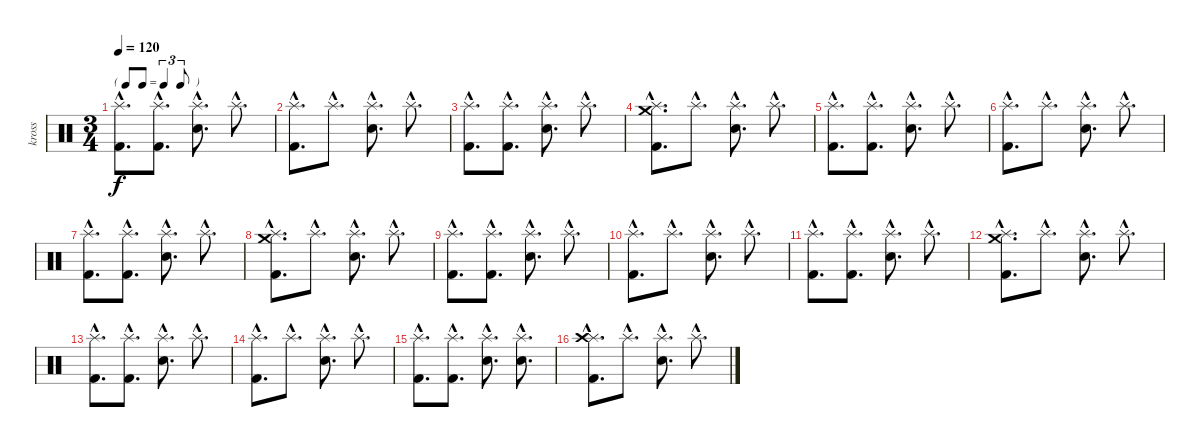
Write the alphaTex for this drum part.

\track ("kross" "kross") {instrument percussion}
\staff {score}
\articulation defaults
\ts (3 4)
\tf triplet8th
\tempo 120
\clef neutral
\ks c
("Splash (hit)"{hac} "Kick (hit) 2"{hac}).8{d dy f} ("Splash (hit)"{hac} "Kick (hit) 2"{hac}).8{d} ("Electric Snare (hit)"{hac} "Splash (hit)"{hac}).8{d} "Splash (hit)"{hac}.8{d} |
("Splash (hit)"{hac} "Kick (hit) 2"{hac}).8{d} "Splash (hit)"{hac}.8{d} ("Electric Snare (hit)"{hac} "Splash (hit)"{hac}).8{d} "Splash (hit)"{hac}.8{d} |
("Splash (hit)"{hac} "Kick (hit) 2"{hac}).8{d} ("Splash (hit)"{hac} "Kick (hit) 2"{hac}).8{d} ("Electric Snare (hit)"{hac} "Splash (hit)"{hac}).8{d} "Splash (hit)"{hac}.8{d} |
("Splash (hit)"{hac} "Crash medium (hit)"{hac} "Kick (hit) 2"{hac}).8{d} "Splash (hit)"{hac}.8{d} ("Electric Snare (hit)"{hac} "Splash (hit)"{hac}).8{d} "Splash (hit)"{hac}.8{d} |
("Splash (hit)"{hac} "Kick (hit) 2"{hac}).8{d} ("Splash (hit)"{hac} "Kick (hit) 2"{hac}).8{d} ("Electric Snare (hit)"{hac} "Splash (hit)"{hac}).8{d} "Splash (hit)"{hac}.8{d} |
("Splash (hit)"{hac} "Kick (hit) 2"{hac}).8{d} "Splash (hit)"{hac}.8{d} ("Electric Snare (hit)"{hac} "Splash (hit)"{hac}).8{d} "Splash (hit)"{hac}.8{d} |
("Splash (hit)"{hac} "Kick (hit) 2"{hac}).8{d} ("Splash (hit)"{hac} "Kick (hit) 2"{hac}).8{d} ("Electric Snare (hit)"{hac} "Splash (hit)"{hac}).8{d} "Splash (hit)"{hac}.8{d} |
("Splash (hit)"{hac} "Crash medium (hit)"{hac} "Kick (hit) 2"{hac}).8{d} "Splash (hit)"{hac}.8{d} ("Electric Snare (hit)"{hac} "Splash (hit)"{hac}).8{d} "Splash (hit)"{hac}.8{d} |
("Splash (hit)"{hac} "Kick (hit) 2"{hac}).8{d} ("Splash (hit)"{hac} "Kick (hit) 2"{hac}).8{d} ("Electric Snare (hit)"{hac} "Splash (hit)"{hac}).8{d} "Splash (hit)"{hac}.8{d} |
("Splash (hit)"{hac} "Kick (hit) 2"{hac}).8{d} "Splash (hit)"{hac}.8{d} ("Electric Snare (hit)"{hac} "Splash (hit)"{hac}).8{d} "Splash (hit)"{hac}.8{d} |
("Splash (hit)"{hac} "Kick (hit) 2"{hac}).8{d} ("Splash (hit)"{hac} "Kick (hit) 2"{hac}).8{d} ("Electric Snare (hit)"{hac} "Splash (hit)"{hac}).8{d} "Splash (hit)"{hac}.8{d} |
("Splash (hit)"{hac} "Crash medium (hit)"{hac} "Kick (hit) 2"{hac}).8{d} "Splash (hit)"{hac}.8{d} ("Electric Snare (hit)"{hac} "Splash (hit)"{hac}).8{d} "Splash (hit)"{hac}.8{d} |
("Splash (hit)"{hac} "Kick (hit) 2"{hac}).8{d} ("Splash (hit)"{hac} "Kick (hit) 2"{hac}).8{d} ("Electric Snare (hit)"{hac} "Splash (hit)"{hac}).8{d} "Splash (hit)"{hac}.8{d} |
("Splash (hit)"{hac} "Kick (hit) 2"{hac}).8{d} "Splash (hit)"{hac}.8{d} ("Electric Snare (hit)"{hac} "Splash (hit)"{hac}).8{d} "Splash (hit)"{hac}.8{d} |
("Splash (hit)"{hac} "Kick (hit) 2"{hac}).8{d} ("Splash (hit)"{hac} "Kick (hit) 2"{hac}).8{d} ("Electric Snare (hit)"{hac} "Splash (hit)"{hac}).8{d} ("Electric Snare (hit)"{hac} "Splash (hit)"{hac}).8{d} |
("Splash (hit)"{hac} "Crash high (hit)"{hac} "Kick (hit) 2"{hac}).8{d} "Splash (hit)"{hac}.8{d} ("Electric Snare (hit)"{hac} "Splash (hit)"{hac}).8{d} "Splash (hit)"{hac}.8{d}
